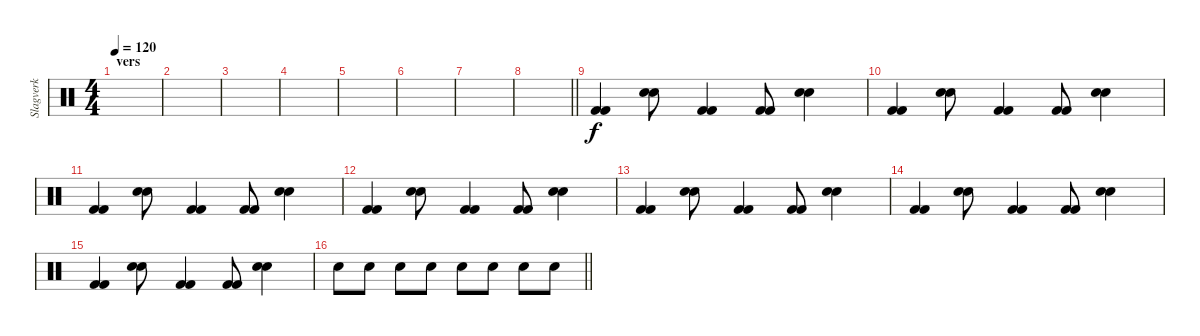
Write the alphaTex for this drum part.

\track ("Slagverk" "Slagverk") {instrument percussion}
\staff {score}
\articulation defaults
\ts (4 4)
\section ("" "vers")
\tempo 120
\clef neutral
\ks c
|
|
|
|
|
|
|
\barLineRight lightlight
|
("Kick (hit) 2" "Kick (hit) 2").4 ("Snare (hit) 2" "Snare (hit) 2").8 ("Kick (hit) 2" "Kick (hit) 2").4 ("Kick (hit) 2" "Kick (hit) 2").8 ("Snare (hit) 2" "Snare (hit) 2").4 |
("Kick (hit) 2" "Kick (hit) 2").4 ("Snare (hit) 2" "Snare (hit) 2").8 ("Kick (hit) 2" "Kick (hit) 2").4 ("Kick (hit) 2" "Kick (hit) 2").8 ("Snare (hit) 2" "Snare (hit) 2").4 |
("Kick (hit) 2" "Kick (hit) 2").4 ("Snare (hit) 2" "Snare (hit) 2").8 ("Kick (hit) 2" "Kick (hit) 2").4 ("Kick (hit) 2" "Kick (hit) 2").8 ("Snare (hit) 2" "Snare (hit) 2").4 |
("Kick (hit) 2" "Kick (hit) 2").4 ("Snare (hit) 2" "Snare (hit) 2").8 ("Kick (hit) 2" "Kick (hit) 2").4 ("Kick (hit) 2" "Kick (hit) 2").8 ("Snare (hit) 2" "Snare (hit) 2").4 |
("Kick (hit) 2" "Kick (hit) 2").4 ("Snare (hit) 2" "Snare (hit) 2").8 ("Kick (hit) 2" "Kick (hit) 2").4 ("Kick (hit) 2" "Kick (hit) 2").8 ("Snare (hit) 2" "Snare (hit) 2").4 |
("Kick (hit) 2" "Kick (hit) 2").4 ("Snare (hit) 2" "Snare (hit) 2").8 ("Kick (hit) 2" "Kick (hit) 2").4 ("Kick (hit) 2" "Kick (hit) 2").8 ("Snare (hit) 2" "Snare (hit) 2").4 |
("Kick (hit) 2" "Kick (hit) 2").4 ("Snare (hit) 2" "Snare (hit) 2").8 ("Kick (hit) 2" "Kick (hit) 2").4 ("Kick (hit) 2" "Kick (hit) 2").8 ("Snare (hit) 2" "Snare (hit) 2").4 |
\barLineRight lightlight "Snare (hit) 2".8 "Snare (hit) 2".8 "Snare (hit) 2".8 "Snare (hit) 2".8 "Snare (hit) 2".8 "Snare (hit) 2".8 "Snare (hit) 2".8 "Snare (hit) 2".8
